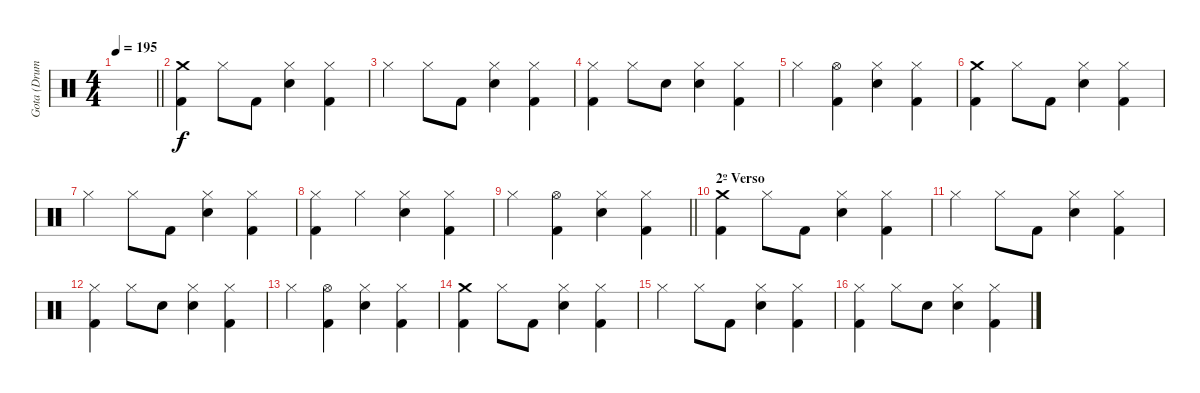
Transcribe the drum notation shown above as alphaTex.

\track ("Gota (Drums)" "Gota (Drum") {instrument percussion}
\staff {score}
\articulation defaults
\ts (4 4)
\tempo 195
\clef neutral
\barLineRight lightlight
\ks c
|
("Crash medium (hit)" "Kick (hit) 2").4{dy f} "Hi-Hat (closed)".8 "Kick (hit) 2".8 ("Hi-Hat (closed)" "Electric Snare (hit)").4 ("Hi-Hat (closed)" "Kick (hit) 2").4 |
"Hi-Hat (closed)".4 "Hi-Hat (closed)".8 "Kick (hit) 2".8 ("Hi-Hat (closed)" "Electric Snare (hit)").4 ("Hi-Hat (closed)" "Kick (hit) 2").4 |
("Hi-Hat (closed)" "Kick (hit) 2").4 "Hi-Hat (closed)".8 "Electric Snare (hit)".8 ("Hi-Hat (closed)" "Electric Snare (hit)").4 ("Hi-Hat (closed)" "Kick (hit) 2").4 |
"Hi-Hat (closed)".4 ("Hi-Hat (open)" "Kick (hit) 2").4 ("Hi-Hat (closed)" "Electric Snare (hit)").4 ("Hi-Hat (closed)" "Kick (hit) 2").4 |
("Crash medium (hit)" "Kick (hit) 2").4 "Hi-Hat (closed)".8 "Kick (hit) 2".8 ("Hi-Hat (closed)" "Electric Snare (hit)").4 ("Hi-Hat (closed)" "Kick (hit) 2").4 |
"Hi-Hat (closed)".4 "Hi-Hat (closed)".8 "Kick (hit) 2".8 ("Hi-Hat (closed)" "Electric Snare (hit)").4 ("Hi-Hat (closed)" "Kick (hit) 2").4 |
("Hi-Hat (closed)" "Kick (hit) 2").4 "Hi-Hat (closed)".4 ("Hi-Hat (closed)" "Electric Snare (hit)").4 ("Hi-Hat (closed)" "Kick (hit) 2").4 |
\barLineRight lightlight "Hi-Hat (closed)".4
("Hi-Hat (open)" "Kick (hit) 2").4 ("Hi-Hat (closed)" "Electric Snare (hit)").4 ("Hi-Hat (closed)" "Kick (hit) 2").4 |
\section ("" "2º Verso")
("Crash medium (hit)" "Kick (hit) 2").4 "Hi-Hat (closed)".8 "Kick (hit) 2".8 ("Hi-Hat (closed)" "Electric Snare (hit)").4 ("Hi-Hat (closed)" "Kick (hit) 2").4 |
"Hi-Hat (closed)".4 "Hi-Hat (closed)".8 "Kick (hit) 2".8 ("Hi-Hat (closed)" "Electric Snare (hit)").4 ("Hi-Hat (closed)" "Kick (hit) 2").4 |
("Hi-Hat (closed)" "Kick (hit) 2").4 "Hi-Hat (closed)".8 "Electric Snare (hit)".8 ("Hi-Hat (closed)" "Electric Snare (hit)").4 ("Hi-Hat (closed)" "Kick (hit) 2").4 |
"Hi-Hat (closed)".4 ("Hi-Hat (open)" "Kick (hit) 2").4 ("Hi-Hat (closed)" "Electric Snare (hit)").4 ("Hi-Hat (closed)" "Kick (hit) 2").4 |
("Crash medium (hit)" "Kick (hit) 2").4 "Hi-Hat (closed)".8 "Kick (hit) 2".8 ("Hi-Hat (closed)" "Electric Snare (hit)").4 ("Hi-Hat (closed)" "Kick (hit) 2").4 |
"Hi-Hat (closed)".4 "Hi-Hat (closed)".8 "Kick (hit) 2".8 ("Hi-Hat (closed)" "Electric Snare (hit)").4 ("Hi-Hat (closed)" "Kick (hit) 2").4 |
("Hi-Hat (closed)" "Kick (hit) 2").4 "Hi-Hat (closed)".8 "Electric Snare (hit)".8 ("Hi-Hat (closed)" "Electric Snare (hit)").4 ("Hi-Hat (closed)" "Kick (hit) 2").4
